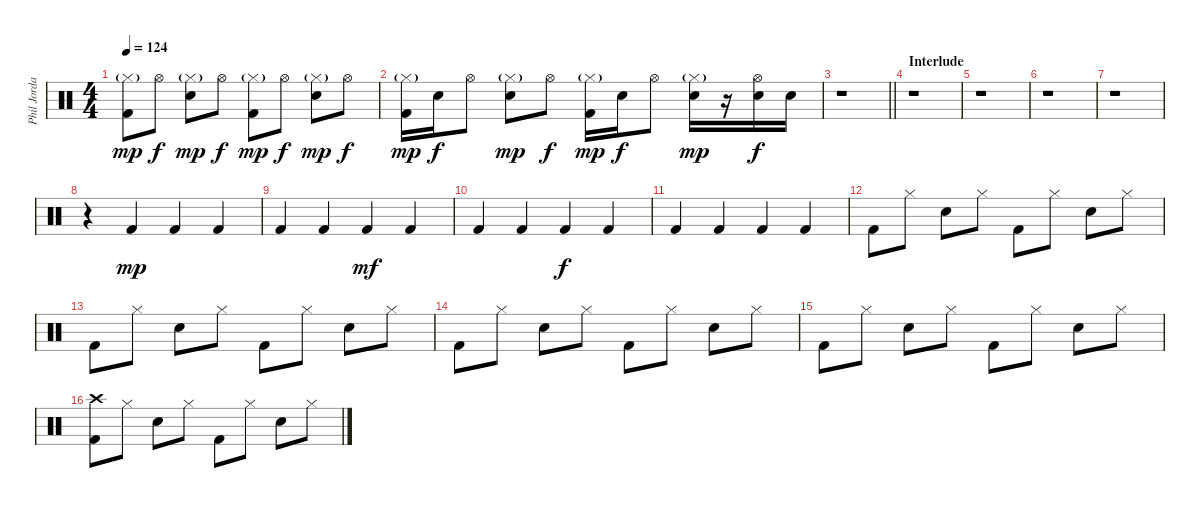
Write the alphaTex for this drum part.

\track ("Phil Jordan (Drums)" "Phil Jorda") {instrument percussion}
\staff {score}
\articulation defaults
\ts (4 4)
\tempo 124
\clef neutral
\ks c
("Hi-Hat (closed)"{g} "Kick (hit) 2").8{dy mp} "Hi-Hat (open)".8{dy f} ("Hi-Hat (closed)"{g} "Electric Snare (hit)").8{dy mp} "Hi-Hat (open)".8{dy f} ("Hi-Hat (closed)"{g} "Kick (hit) 2").8{dy mp} "Hi-Hat (open)".8{dy f} ("Hi-Hat (closed)"{g} "Electric Snare (hit)").8{dy mp} "Hi-Hat (open)".8{dy f} |
("Hi-Hat (closed)"{g} "Kick (hit) 2").16{dy mp} "Electric Snare (hit)".16{dy f} "Hi-Hat (open)".8 ("Hi-Hat (closed)"{g} "Electric Snare (hit)").8{dy mp} "Hi-Hat (open)".8{dy f} ("Hi-Hat (closed)"{g} "Kick (hit) 2").16{dy mp} "Electric Snare (hit)".16{dy f} "Hi-Hat (open)".8 ("Hi-Hat (closed)"{g} "Electric Snare (hit)").16{dy mp} r.16 ("Hi-Hat (open)" "Electric Snare (hit)").16{dy f} "Electric Snare (hit)".16 |
\barLineRight lightlight
r.1 |
\section ("" "Interlude")
r.1 |
r.1 |
r.1 |
r.1 |
r.4 "Kick (hit) 2".4{dy mp} "Kick (hit) 2".4 "Kick (hit) 2".4 |
"Kick (hit) 2".4 "Kick (hit) 2".4 "Kick (hit) 2".4{dy mf} "Kick (hit) 2".4 |
"Kick (hit) 2".4 "Kick (hit) 2".4 "Kick (hit) 2".4{dy f} "Kick (hit) 2".4 |
"Kick (hit) 2".4 "Kick (hit) 2".4 "Kick (hit) 2".4 "Kick (hit) 2".4 |
"Kick (hit) 2".8 "Hi-Hat (closed)".8 "Electric Snare (hit)".8 "Hi-Hat (closed)".8 "Kick (hit) 2".8 "Hi-Hat (closed)".8 "Electric Snare (hit)".8 "Hi-Hat (closed)".8 |
"Kick (hit) 2".8 "Hi-Hat (closed)".8 "Electric Snare (hit)".8 "Hi-Hat (closed)".8 "Kick (hit) 2".8 "Hi-Hat (closed)".8 "Electric Snare (hit)".8 "Hi-Hat (closed)".8 |
"Kick (hit) 2".8 "Hi-Hat (closed)".8 "Electric Snare (hit)".8 "Hi-Hat (closed)".8 "Kick (hit) 2".8 "Hi-Hat (closed)".8 "Electric Snare (hit)".8 "Hi-Hat (closed)".8 |
"Kick (hit) 2".8 "Hi-Hat (closed)".8 "Electric Snare (hit)".8 "Hi-Hat (closed)".8 "Kick (hit) 2".8 "Hi-Hat (closed)".8 "Electric Snare (hit)".8 "Hi-Hat (closed)".8 |
("Crash high (hit)" "Kick (hit) 2").8 "Hi-Hat (closed)".8 "Electric Snare (hit)".8 "Hi-Hat (closed)".8 "Kick (hit) 2".8 "Hi-Hat (closed)".8 "Electric Snare (hit)".8 "Hi-Hat (closed)".8
